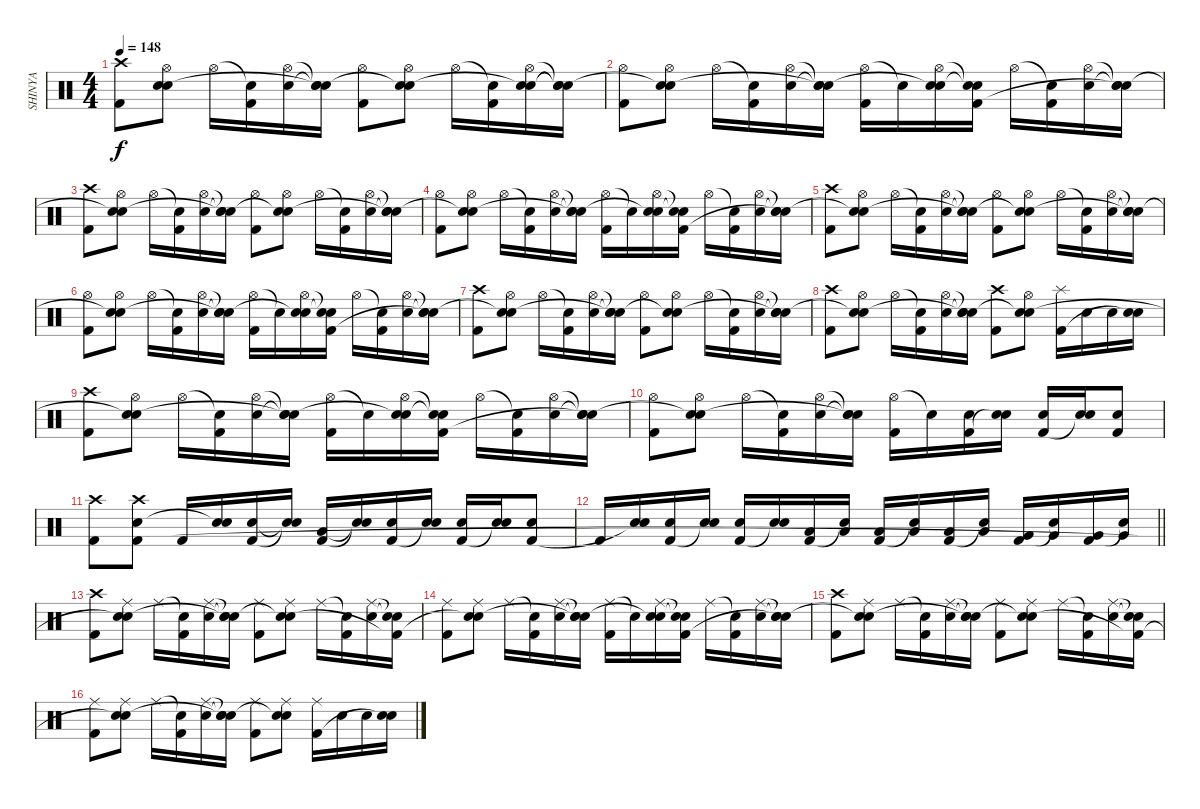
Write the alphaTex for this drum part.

\track ("SHINYA" "SHINYA") {instrument percussion}
\staff {score}
\articulation defaults
\ts (4 4)
\tempo 148
\clef neutral
\ks c
("Crash high (hit)" "Kick (hit) 2").8{dy f} ("Hi-Hat (open)" "Electric Snare (hit)" "Snare (hit)"{t}).8 "Hi-Hat (open)".16 ("Snare (hit)"{t} "Kick (hit) 2").16 ("Hi-Hat (open)" "Electric Snare (hit)").16 ("Snare (hit)"{t} "Electric Snare (hit)"{t} "Snare (hit)"{t}).16 ("Hi-Hat (open)" "Kick (hit) 2").8 ("Hi-Hat (open)" "Electric Snare (hit)" "Snare (hit)"{t}).8 "Hi-Hat (open)".16 ("Snare (hit)"{t} "Kick (hit) 2").16 ("Hi-Hat (open)" "Electric Snare (hit)" "Snare (hit)"{t}).16 ("Snare (hit)"{t} "Electric Snare (hit)"{t} "Snare (hit)"{t}).16 |
("Hi-Hat (open)" "Kick (hit) 2").8 ("Hi-Hat (open)" "Electric Snare (hit)" "Snare (hit)"{t}).8 "Hi-Hat (open)".16 ("Snare (hit)"{t} "Kick (hit) 2").16 ("Hi-Hat (open)" "Electric Snare (hit)").16 ("Snare (hit)"{t} "Electric Snare (hit)"{t} "Snare (hit)"{t}).16 ("Hi-Hat (open)" "Kick (hit) 2").16 "Snare (hit)"{t}.16 ("Hi-Hat (open)" "Electric Snare (hit)" "Snare (hit)"{t}).16 ("Snare (hit)"{t} "Snare (hit)"{t} "Kick (hit) 2").16 "Hi-Hat (open)".16 ("Snare (hit)"{t} "Kick (hit) 2").16 ("Hi-Hat (open)" "Electric Snare (hit)").16 ("Snare (hit)"{t} "Electric Snare (hit)"{t} "Snare (hit)"{t}).16 |
("Crash high (hit)" "Kick (hit) 2").8 ("Hi-Hat (open)" "Electric Snare (hit)" "Snare (hit)"{t}).8 "Hi-Hat (open)".16 ("Snare (hit)"{t} "Kick (hit) 2").16 ("Hi-Hat (open)" "Electric Snare (hit)").16 ("Snare (hit)"{t} "Electric Snare (hit)"{t} "Snare (hit)"{t}).16 ("Hi-Hat (open)" "Kick (hit) 2").8 ("Hi-Hat (open)" "Electric Snare (hit)" "Snare (hit)"{t}).8 "Hi-Hat (open)".16 ("Snare (hit)"{t} "Kick (hit) 2").16 ("Hi-Hat (open)" "Electric Snare (hit)").16 ("Snare (hit)"{t} "Electric Snare (hit)"{t} "Snare (hit)"{t}).16 |
("Hi-Hat (open)" "Kick (hit) 2").8 ("Hi-Hat (open)" "Electric Snare (hit)" "Snare (hit)"{t}).8 "Hi-Hat (open)".16 ("Snare (hit)"{t} "Kick (hit) 2").16 ("Hi-Hat (open)" "Electric Snare (hit)").16 ("Snare (hit)"{t} "Electric Snare (hit)"{t} "Snare (hit)"{t}).16 ("Hi-Hat (open)" "Kick (hit) 2").16 "Snare (hit)"{t}.16 ("Hi-Hat (open)" "Electric Snare (hit)" "Snare (hit)"{t}).16 ("Snare (hit)"{t} "Snare (hit)"{t} "Kick (hit) 2").16 "Hi-Hat (open)".16 ("Snare (hit)"{t} "Kick (hit) 2").16 ("Hi-Hat (open)" "Electric Snare (hit)").16 ("Snare (hit)"{t} "Electric Snare (hit)"{t} "Snare (hit)"{t}).16 |
("Crash high (hit)" "Kick (hit) 2").8 ("Hi-Hat (open)" "Electric Snare (hit)" "Snare (hit)"{t}).8 "Hi-Hat (open)".16 ("Snare (hit)"{t} "Kick (hit) 2").16 ("Hi-Hat (open)" "Electric Snare (hit)").16 ("Snare (hit)"{t} "Electric Snare (hit)"{t} "Snare (hit)"{t}).16 ("Hi-Hat (open)" "Kick (hit) 2").8 ("Hi-Hat (open)" "Electric Snare (hit)" "Snare (hit)"{t}).8 "Hi-Hat (open)".16 ("Snare (hit)"{t} "Kick (hit) 2").16 ("Hi-Hat (open)" "Electric Snare (hit)").16 ("Snare (hit)"{t} "Electric Snare (hit)"{t} "Snare (hit)"{t}).16 |
("Hi-Hat (open)" "Kick (hit) 2").8 ("Hi-Hat (open)" "Electric Snare (hit)" "Snare (hit)"{t}).8 "Hi-Hat (open)".16 ("Snare (hit)"{t} "Kick (hit) 2").16 ("Hi-Hat (open)" "Electric Snare (hit)").16 ("Snare (hit)"{t} "Electric Snare (hit)"{t} "Snare (hit)"{t}).16 ("Hi-Hat (open)" "Kick (hit) 2").16 "Snare (hit)"{t}.16 ("Hi-Hat (open)" "Electric Snare (hit)" "Snare (hit)"{t}).16 ("Snare (hit)"{t} "Snare (hit)"{t} "Kick (hit) 2").16 "Hi-Hat (open)".16 ("Snare (hit)"{t} "Kick (hit) 2").16 ("Hi-Hat (open)" "Electric Snare (hit)").16 ("Snare (hit)"{t} "Electric Snare (hit)"{t} "Snare (hit)"{t}).16 |
("Crash high (hit)" "Kick (hit) 2").8 ("Hi-Hat (open)" "Electric Snare (hit)" "Snare (hit)"{t}).8 "Hi-Hat (open)".16 ("Snare (hit)"{t} "Kick (hit) 2").16 ("Hi-Hat (open)" "Electric Snare (hit)").16 ("Snare (hit)"{t} "Electric Snare (hit)"{t} "Snare (hit)"{t}).16 ("Hi-Hat (open)" "Kick (hit) 2").8 ("Hi-Hat (open)" "Electric Snare (hit)" "Snare (hit)"{t}).8 "Hi-Hat (open)".16 ("Snare (hit)"{t} "Kick (hit) 2").16 ("Hi-Hat (open)" "Electric Snare (hit)").16 ("Snare (hit)"{t} "Electric Snare (hit)"{t} "Snare (hit)"{t}).16 |
("Crash high (hit)" "Kick (hit) 2").8 ("Hi-Hat (open)" "Electric Snare (hit)" "Snare (hit)"{t}).8 "Hi-Hat (open)".16 ("Snare (hit)"{t} "Kick (hit) 2").16 ("Hi-Hat (open)" "Electric Snare (hit)").16 ("Snare (hit)"{t} "Electric Snare (hit)"{t} "Snare (hit)"{t}).16 ("Crash high (hit)" "Kick (hit) 2").8 ("Hi-Hat (open)" "Electric Snare (hit)" "Snare (hit)"{t}).8 ("Splash (hit)" "Kick (hit) 2").16 "Electric Snare (hit)".16 "Electric Snare (hit)".16 ("Electric Snare (hit)" "Snare (hit)"{t}).16 |
("Crash high (hit)" "Kick (hit) 2").8 ("Hi-Hat (open)" "Electric Snare (hit)" "Snare (hit)"{t}).8 "Hi-Hat (open)".16 ("Snare (hit)"{t} "Kick (hit) 2").16 ("Hi-Hat (open)" "Electric Snare (hit)").16 ("Snare (hit)"{t} "Electric Snare (hit)"{t} "Snare (hit)"{t}).16 ("Hi-Hat (open)" "Kick (hit) 2").16 "Snare (hit)"{t}.16 ("Hi-Hat (open)" "Electric Snare (hit)" "Snare (hit)"{t}).16 ("Snare (hit)"{t} "Snare (hit)"{t} "Kick (hit) 2").16 "Hi-Hat (open)".16 ("Snare (hit)"{t} "Kick (hit) 2").16 ("Hi-Hat (open)" "Electric Snare (hit)").16 ("Snare (hit)"{t} "Electric Snare (hit)"{t} "Snare (hit)"{t}).16 |
("Hi-Hat (open)" "Kick (hit) 2").8 ("Hi-Hat (open)" "Electric Snare (hit)" "Snare (hit)"{t}).8 "Hi-Hat (open)".16 ("Snare (hit)"{t} "Kick (hit) 2").16 ("Hi-Hat (open)" "Electric Snare (hit)").16 ("Snare (hit)"{t} "Electric Snare (hit)"{t} "Snare (hit)"{t}).16 ("Hi-Hat (open)" "Kick (hit) 2").16 "Snare (hit)"{t}.16 ("Electric Snare (hit)" "Kick (hit) 2").16 ("Electric Snare (hit)" "Snare (hit)"{t}).16 ("Electric Snare (hit)" "Kick (hit) 2").16 ("Electric Snare (hit)" "Snare (hit)"{t}).16 ("Electric Snare (hit)" "Kick (hit) 2").8 |
("Crash high (hit)" "Kick (hit) 2").8 ("Crash high (hit)" "Electric Snare (hit)" "Kick (hit) 2").8 "Kick (hit) 2".16 ("Electric Snare (hit)" "Snare (hit)"{t}).16 ("Electric Snare (hit)" "Kick (hit) 2").16 ("Electric Snare (hit)"{t} "Snare (hit)"{t}).16 ("Low Tom (hit)" "Kick (hit) 2").16 ("Snare (hit)"{t} "Snare (hit)"{t}).16 ("Electric Snare (hit)" "Kick (hit) 2").16 ("Electric Snare (hit)" "Snare (hit)"{t}).16 ("Electric Snare (hit)" "Kick (hit) 2").16 ("Electric Snare (hit)" "Snare (hit)"{t}).16 ("Electric Snare (hit)" "Kick (hit) 2").8 |
\barLineRight lightlight "Kick (hit) 2".16
("Electric Snare (hit)" "Snare (hit)"{t}).16 ("Electric Snare (hit)" "Kick (hit) 2").16 ("Electric Snare (hit)" "Snare (hit)"{t}).16 ("Electric Snare (hit)" "Kick (hit) 2").16 ("Electric Snare (hit)" "Snare (hit)"{t}).16 ("Low Tom (hit)" "Kick (hit) 2").16 ("Low Tom (hit)" "Snare (hit)"{t}).16 ("Low Tom (hit)" "Kick (hit) 2").16 ("Low Tom (hit)" "Snare (hit)"{t}).16 ("Low Tom (hit)" "Kick (hit) 2").16 ("Low Tom (hit)" "Snare (hit)"{t}).16 ("Very Low Tom (hit)" "Kick (hit) 2").16 ("Very Low Tom (hit)" "Snare (hit)"{t}).16 ("Very Low Tom (hit)" "Kick (hit) 2").16 ("Very Low Tom (hit)" "Snare (hit)"{t}).16 |
("Crash high (hit)" "Kick (hit) 2").8 ("Ride (middle)" "Electric Snare (hit)" "Snare (hit)"{t}).8 "Ride (middle)".16 ("Snare (hit)"{t} "Kick (hit) 2").16 ("Ride (middle)" "Electric Snare (hit)").16 ("Snare (hit)"{t} "Snare (hit)"{t} "Snare (hit)"{t}).16 ("Ride (middle)" "Kick (hit) 2").8 ("Ride (middle)" "Electric Snare (hit)" "Snare (hit)"{t}).8 "Ride (middle)".16 ("Snare (hit)"{t} "Kick (hit) 2").16 ("Ride (middle)" "Electric Snare (hit)").16 ("Snare (hit)"{t} "Snare (hit)"{t} "Kick (hit) 2"{t}).16 |
("Ride (middle)" "Kick (hit) 2").8 ("Ride (middle)" "Electric Snare (hit)" "Snare (hit)"{t}).8 "Ride (middle)".16 ("Snare (hit)"{t} "Kick (hit) 2").16 ("Ride (middle)" "Electric Snare (hit)").16 ("Snare (hit)"{t} "Electric Snare (hit)"{t} "Snare (hit)"{t}).16 ("Ride (middle)" "Kick (hit) 2").16 "Snare (hit)"{t}.16 ("Ride (middle)" "Electric Snare (hit)" "Snare (hit)"{t}).16 ("Snare (hit)"{t} "Snare (hit)"{t} "Kick (hit) 2").16 "Ride (middle)".16 ("Snare (hit)"{t} "Kick (hit) 2").16 ("Ride (middle)" "Electric Snare (hit)").16 ("Snare (hit)"{t} "Electric Snare (hit)"{t} "Snare (hit)"{t}).16 |
("Crash high (hit)" "Kick (hit) 2").8 ("Ride (middle)" "Electric Snare (hit)" "Snare (hit)"{t}).8 "Ride (middle)".16 ("Snare (hit)"{t} "Kick (hit) 2").16 ("Ride (middle)" "Electric Snare (hit)").16 ("Snare (hit)"{t} "Snare (hit)"{t} "Snare (hit)"{t}).16 ("Ride (middle)" "Kick (hit) 2").8 ("Ride (middle)" "Electric Snare (hit)" "Snare (hit)"{t}).8 "Ride (middle)".16 ("Snare (hit)"{t} "Kick (hit) 2").16 ("Ride (middle)" "Electric Snare (hit)").16 ("Snare (hit)"{t} "Snare (hit)"{t} "Kick (hit) 2"{t}).16 |
("Ride (middle)" "Kick (hit) 2").8 ("Ride (middle)" "Electric Snare (hit)" "Snare (hit)"{t}).8 "Ride (middle)".16 ("Snare (hit)"{t} "Kick (hit) 2").16 ("Ride (middle)" "Electric Snare (hit)").16 ("Snare (hit)"{t} "Electric Snare (hit)"{t} "Snare (hit)"{t}).16 ("Ride (middle)" "Kick (hit) 2").8 ("Ride (middle)" "Electric Snare (hit)" "Snare (hit)"{t}).8 ("Ride (middle)" "Kick (hit) 2").16 "Electric Snare (hit)".16 "Electric Snare (hit)".16 ("Electric Snare (hit)" "Snare (hit)"{t}).16
